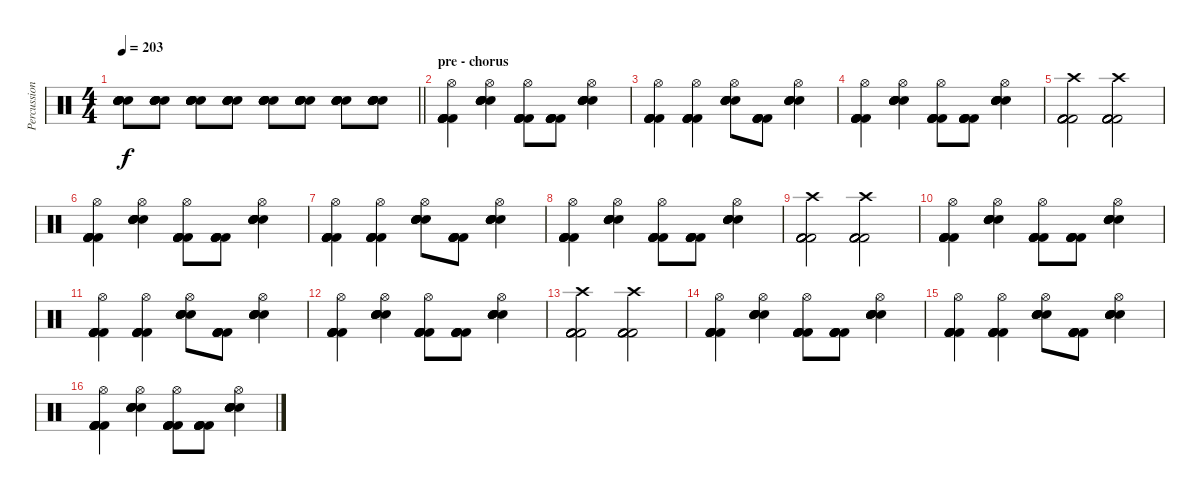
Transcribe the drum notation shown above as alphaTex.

\track ("Percussion" "Percussion") {instrument percussion}
\staff {score}
\articulation defaults
\ts (4 4)
\tempo 203
\clef neutral
\barLineRight lightlight
\ks c
("Electric Snare (hit)" "Electric Snare (hit)" "Electric Snare (hit)" "Electric Snare (hit)" "Electric Snare (hit)" "Electric Snare (hit)").8{dy f} ("Snare (hit) 2" "Snare (hit) 2" "Snare (hit) 2" "Snare (hit) 2" "Snare (hit) 2" "Snare (hit) 2").8 ("Electric Snare (hit)" "Electric Snare (hit)" "Electric Snare (hit)" "Electric Snare (hit)" "Electric Snare (hit)" "Electric Snare (hit)").8 ("Snare (hit) 2" "Snare (hit) 2" "Snare (hit) 2" "Snare (hit) 2" "Snare (hit) 2" "Snare (hit) 2").8 ("Electric Snare (hit)" "Electric Snare (hit)" "Electric Snare (hit)" "Electric Snare (hit)" "Electric Snare (hit)" "Electric Snare (hit)").8 ("Snare (hit) 2" "Snare (hit) 2" "Snare (hit) 2" "Snare (hit) 2" "Snare (hit) 2" "Snare (hit) 2").8 ("Electric Snare (hit)" "Electric Snare (hit)" "Electric Snare (hit)" "Electric Snare (hit)" "Electric Snare (hit)" "Electric Snare (hit)").8 ("Snare (hit) 2" "Snare (hit) 2" "Snare (hit) 2" "Snare (hit) 2" "Snare (hit) 2" "Snare (hit) 2").8 |
\section ("" "pre - chorus")
("Kick (hit) 2" "Kick (hit) 2" "Kick (hit) 2" "Kick (hit) 2" "Kick (hit) 2" "Hi-Hat (open)").4 ("Electric Snare (hit)" "Electric Snare (hit)" "Electric Snare (hit)" "Electric Snare (hit)" "Electric Snare (hit)" "Hi-Hat (open)").4 ("Kick (hit) 2" "Kick (hit) 2" "Kick (hit) 2" "Kick (hit) 2" "Kick (hit) 2" "Hi-Hat (open)").8 ("Kick (hit) 2" "Kick (hit) 2" "Kick (hit) 2" "Kick (hit) 2" "Kick (hit) 2").8 ("Electric Snare (hit)" "Electric Snare (hit)" "Electric Snare (hit)" "Electric Snare (hit)" "Electric Snare (hit)" "Hi-Hat (open)").4 |
("Kick (hit) 2" "Kick (hit) 2" "Kick (hit) 2" "Kick (hit) 2" "Kick (hit) 2" "Hi-Hat (open)").4 ("Kick (hit) 2" "Kick (hit) 2" "Kick (hit) 2" "Kick (hit) 2" "Kick (hit) 2" "Hi-Hat (open)").4 ("Electric Snare (hit)" "Electric Snare (hit)" "Electric Snare (hit)" "Electric Snare (hit)" "Electric Snare (hit)" "Hi-Hat (open)").8 ("Kick (hit) 2" "Kick (hit) 2" "Kick (hit) 2" "Kick (hit) 2" "Kick (hit) 2").8 ("Electric Snare (hit)" "Electric Snare (hit)" "Electric Snare (hit)" "Electric Snare (hit)" "Electric Snare (hit)" "Hi-Hat (open)").4 |
("Kick (hit) 2" "Kick (hit) 2" "Kick (hit) 2" "Kick (hit) 2" "Kick (hit) 2" "Hi-Hat (open)").4 ("Electric Snare (hit)" "Electric Snare (hit)" "Electric Snare (hit)" "Electric Snare (hit)" "Electric Snare (hit)" "Hi-Hat (open)").4 ("Kick (hit) 2" "Kick (hit) 2" "Kick (hit) 2" "Kick (hit) 2" "Kick (hit) 2" "Hi-Hat (open)").8 ("Kick (hit) 2" "Kick (hit) 2" "Kick (hit) 2" "Kick (hit) 2" "Kick (hit) 2").8 ("Electric Snare (hit)" "Electric Snare (hit)" "Electric Snare (hit)" "Electric Snare (hit)" "Electric Snare (hit)" "Hi-Hat (open)").4 |
("Kick (hit) 2" "Kick (hit) 2" "Kick (hit) 2" "Kick (hit) 2" "Kick (hit) 2" "Crash high (hit)").2 ("Kick (hit) 2" "Kick (hit) 2" "Kick (hit) 2" "Kick (hit) 2" "Kick (hit) 2" "Crash high (hit)").2 |
("Kick (hit) 2" "Kick (hit) 2" "Kick (hit) 2" "Kick (hit) 2" "Kick (hit) 2" "Hi-Hat (open)").4 ("Electric Snare (hit)" "Electric Snare (hit)" "Electric Snare (hit)" "Electric Snare (hit)" "Electric Snare (hit)" "Hi-Hat (open)").4 ("Kick (hit) 2" "Kick (hit) 2" "Kick (hit) 2" "Kick (hit) 2" "Kick (hit) 2" "Hi-Hat (open)").8 ("Kick (hit) 2" "Kick (hit) 2" "Kick (hit) 2" "Kick (hit) 2" "Kick (hit) 2").8 ("Electric Snare (hit)" "Electric Snare (hit)" "Electric Snare (hit)" "Electric Snare (hit)" "Electric Snare (hit)" "Hi-Hat (open)").4 |
("Kick (hit) 2" "Kick (hit) 2" "Kick (hit) 2" "Kick (hit) 2" "Kick (hit) 2" "Hi-Hat (open)").4 ("Kick (hit) 2" "Kick (hit) 2" "Kick (hit) 2" "Kick (hit) 2" "Kick (hit) 2" "Hi-Hat (open)").4 ("Electric Snare (hit)" "Electric Snare (hit)" "Electric Snare (hit)" "Electric Snare (hit)" "Electric Snare (hit)" "Hi-Hat (open)").8 ("Kick (hit) 2" "Kick (hit) 2" "Kick (hit) 2" "Kick (hit) 2" "Kick (hit) 2").8 ("Electric Snare (hit)" "Electric Snare (hit)" "Electric Snare (hit)" "Electric Snare (hit)" "Electric Snare (hit)" "Hi-Hat (open)").4 |
("Kick (hit) 2" "Kick (hit) 2" "Kick (hit) 2" "Kick (hit) 2" "Kick (hit) 2" "Hi-Hat (open)").4 ("Electric Snare (hit)" "Electric Snare (hit)" "Electric Snare (hit)" "Electric Snare (hit)" "Electric Snare (hit)" "Hi-Hat (open)").4 ("Kick (hit) 2" "Kick (hit) 2" "Kick (hit) 2" "Kick (hit) 2" "Kick (hit) 2" "Hi-Hat (open)").8 ("Kick (hit) 2" "Kick (hit) 2" "Kick (hit) 2" "Kick (hit) 2" "Kick (hit) 2").8 ("Electric Snare (hit)" "Electric Snare (hit)" "Electric Snare (hit)" "Electric Snare (hit)" "Electric Snare (hit)" "Hi-Hat (open)").4 |
("Kick (hit) 2" "Kick (hit) 2" "Kick (hit) 2" "Kick (hit) 2" "Kick (hit) 2" "Crash high (hit)").2 ("Kick (hit) 2" "Kick (hit) 2" "Kick (hit) 2" "Kick (hit) 2" "Kick (hit) 2" "Crash high (hit)").2 |
("Kick (hit) 2" "Kick (hit) 2" "Kick (hit) 2" "Kick (hit) 2" "Kick (hit) 2" "Hi-Hat (open)").4 ("Electric Snare (hit)" "Electric Snare (hit)" "Electric Snare (hit)" "Electric Snare (hit)" "Electric Snare (hit)" "Hi-Hat (open)").4 ("Kick (hit) 2" "Kick (hit) 2" "Kick (hit) 2" "Kick (hit) 2" "Kick (hit) 2" "Hi-Hat (open)").8 ("Kick (hit) 2" "Kick (hit) 2" "Kick (hit) 2" "Kick (hit) 2" "Kick (hit) 2").8 ("Electric Snare (hit)" "Electric Snare (hit)" "Electric Snare (hit)" "Electric Snare (hit)" "Electric Snare (hit)" "Hi-Hat (open)").4 |
("Kick (hit) 2" "Kick (hit) 2" "Kick (hit) 2" "Kick (hit) 2" "Kick (hit) 2" "Hi-Hat (open)").4 ("Kick (hit) 2" "Kick (hit) 2" "Kick (hit) 2" "Kick (hit) 2" "Kick (hit) 2" "Hi-Hat (open)").4 ("Electric Snare (hit)" "Electric Snare (hit)" "Electric Snare (hit)" "Electric Snare (hit)" "Electric Snare (hit)" "Hi-Hat (open)").8 ("Kick (hit) 2" "Kick (hit) 2" "Kick (hit) 2" "Kick (hit) 2" "Kick (hit) 2").8 ("Electric Snare (hit)" "Electric Snare (hit)" "Electric Snare (hit)" "Electric Snare (hit)" "Electric Snare (hit)" "Hi-Hat (open)").4 |
("Kick (hit) 2" "Kick (hit) 2" "Kick (hit) 2" "Kick (hit) 2" "Kick (hit) 2" "Hi-Hat (open)").4 ("Electric Snare (hit)" "Electric Snare (hit)" "Electric Snare (hit)" "Electric Snare (hit)" "Electric Snare (hit)" "Hi-Hat (open)").4 ("Kick (hit) 2" "Kick (hit) 2" "Kick (hit) 2" "Kick (hit) 2" "Kick (hit) 2" "Hi-Hat (open)").8 ("Kick (hit) 2" "Kick (hit) 2" "Kick (hit) 2" "Kick (hit) 2" "Kick (hit) 2").8 ("Electric Snare (hit)" "Electric Snare (hit)" "Electric Snare (hit)" "Electric Snare (hit)" "Electric Snare (hit)" "Hi-Hat (open)").4 |
("Kick (hit) 2" "Kick (hit) 2" "Kick (hit) 2" "Kick (hit) 2" "Kick (hit) 2" "Crash high (hit)").2 ("Kick (hit) 2" "Kick (hit) 2" "Kick (hit) 2" "Kick (hit) 2" "Kick (hit) 2" "Crash high (hit)").2 |
("Kick (hit) 2" "Kick (hit) 2" "Kick (hit) 2" "Kick (hit) 2" "Kick (hit) 2" "Hi-Hat (open)").4 ("Electric Snare (hit)" "Electric Snare (hit)" "Electric Snare (hit)" "Electric Snare (hit)" "Electric Snare (hit)" "Hi-Hat (open)").4 ("Kick (hit) 2" "Kick (hit) 2" "Kick (hit) 2" "Kick (hit) 2" "Kick (hit) 2" "Hi-Hat (open)").8 ("Kick (hit) 2" "Kick (hit) 2" "Kick (hit) 2" "Kick (hit) 2" "Kick (hit) 2").8 ("Electric Snare (hit)" "Electric Snare (hit)" "Electric Snare (hit)" "Electric Snare (hit)" "Electric Snare (hit)" "Hi-Hat (open)").4 |
("Kick (hit) 2" "Kick (hit) 2" "Kick (hit) 2" "Kick (hit) 2" "Kick (hit) 2" "Hi-Hat (open)").4 ("Kick (hit) 2" "Kick (hit) 2" "Kick (hit) 2" "Kick (hit) 2" "Kick (hit) 2" "Hi-Hat (open)").4 ("Electric Snare (hit)" "Electric Snare (hit)" "Electric Snare (hit)" "Electric Snare (hit)" "Electric Snare (hit)" "Hi-Hat (open)").8 ("Kick (hit) 2" "Kick (hit) 2" "Kick (hit) 2" "Kick (hit) 2" "Kick (hit) 2").8 ("Electric Snare (hit)" "Electric Snare (hit)" "Electric Snare (hit)" "Electric Snare (hit)" "Electric Snare (hit)" "Hi-Hat (open)").4 |
("Kick (hit) 2" "Kick (hit) 2" "Kick (hit) 2" "Kick (hit) 2" "Kick (hit) 2" "Hi-Hat (open)").4 ("Electric Snare (hit)" "Electric Snare (hit)" "Electric Snare (hit)" "Electric Snare (hit)" "Electric Snare (hit)" "Hi-Hat (open)").4 ("Kick (hit) 2" "Kick (hit) 2" "Kick (hit) 2" "Kick (hit) 2" "Kick (hit) 2" "Hi-Hat (open)").8 ("Kick (hit) 2" "Kick (hit) 2" "Kick (hit) 2" "Kick (hit) 2" "Kick (hit) 2").8 ("Electric Snare (hit)" "Electric Snare (hit)" "Electric Snare (hit)" "Electric Snare (hit)" "Electric Snare (hit)" "Hi-Hat (open)").4
